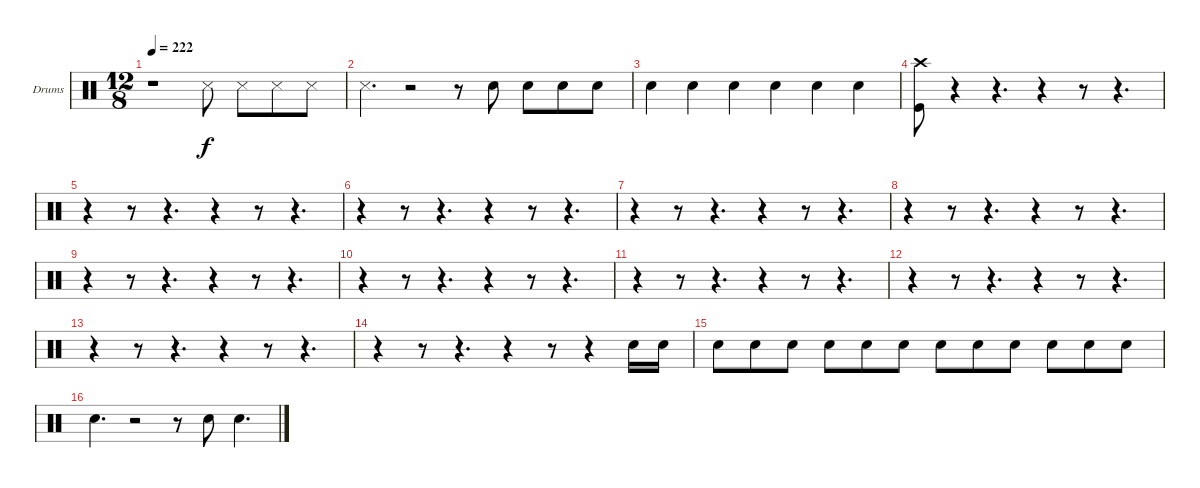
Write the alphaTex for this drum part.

\bracketExtendMode nobrackets
\firstSystemTrackNameOrientation horizontal
\otherSystemsTrackNameOrientation horizontal
\track ("Drumkit" "Drums") {instrument percussion}
\staff {score}
\articulation defaults
\ts (12 8)
\tempo 222
\clef neutral
\ks c
r.1{dy f} "Snare (side stick) 3".8 "Snare (side stick) 3".8 "Snare (side stick) 3".8 "Snare (side stick) 3".8 |
"Snare (side stick) 3".4{d} r.2 r.8 "Snare (hit) 2".8 "Snare (hit) 2".8 "Snare (hit) 2".8 "Snare (hit) 2".8 |
"Snare (hit) 2".4 "Snare (hit) 2".4 "Snare (hit) 2".4 "Snare (hit) 2".4 "Snare (hit) 2".4 "Snare (hit) 2".4 |
("Kick (hit)" "Crash high (hit)").8 r.4 r.4{d} r.4 r.8 r.4{d} |
r.4 r.8 r.4{d} r.4 r.8 r.4{d} |
r.4 r.8 r.4{d} r.4 r.8 r.4{d} |
r.4 r.8 r.4{d} r.4 r.8 r.4{d} |
r.4 r.8 r.4{d} r.4 r.8 r.4{d} |
r.4 r.8 r.4{d} r.4 r.8 r.4{d} |
r.4 r.8 r.4{d} r.4 r.8 r.4{d} |
r.4 r.8 r.4{d} r.4 r.8 r.4{d} |
r.4 r.8 r.4{d} r.4 r.8 r.4{d} |
r.4 r.8 r.4{d} r.4 r.8 r.4{d} |
r.4 r.8 r.4{d} r.4 r.8 r.4 "Snare (hit) 2".16 "Snare (hit) 2".16 |
"Snare (hit) 2".8 "Snare (hit) 2".8 "Snare (hit) 2".8 "Snare (hit) 2".8 "Snare (hit) 2".8 "Snare (hit) 2".8 "Snare (hit) 2".8 "Snare (hit) 2".8 "Snare (hit) 2".8 "Snare (hit) 2".8 "Snare (hit) 2".8 "Snare (hit) 2".8 |
"Snare (hit) 2".4{d} r.2 r.8 "Snare (hit) 2".8 "Snare (hit) 2".4{d}
